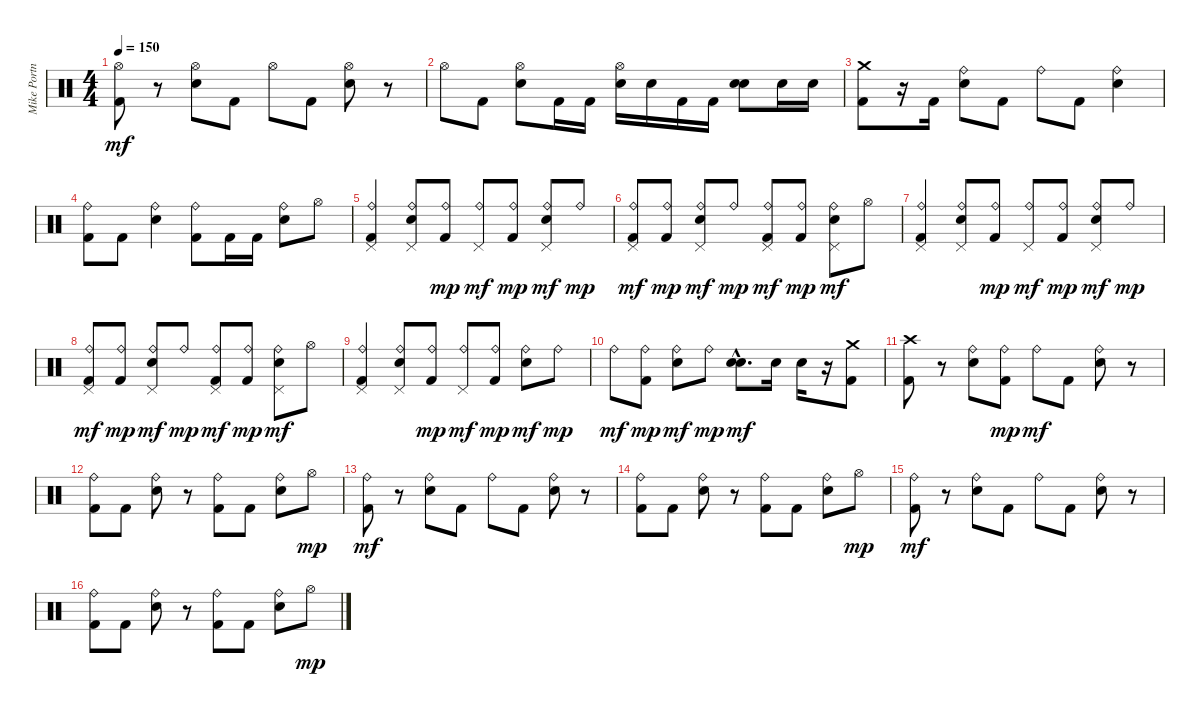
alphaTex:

\track ("Mike Portnoy: Drums" "Mike Portn") {instrument percussion}
\staff {score}
\articulation defaults
\ts (4 4)
\tempo 150
\clef neutral
\ks c
("Kick (hit) 2" "Hi-Hat (open)").8{dy mf} r.8 ("Electric Snare (hit)" "Hi-Hat (open)").8 "Kick (hit) 2".8 "Hi-Hat (open)".8 "Kick (hit) 2".8 ("Electric Snare (hit)" "Hi-Hat (open)").8 r.8 |
"Hi-Hat (open)".8 "Kick (hit) 2".8 ("Electric Snare (hit)" "Hi-Hat (open)").8 "Kick (hit) 2".16 "Kick (hit) 2".16 ("Electric Snare (hit)" "Hi-Hat (open)").16 "Electric Snare (hit)".16 "Kick (hit) 2".16 "Kick (hit) 2".16 ("Electric Snare (hit)" "Electric Snare (hit)").8 "Electric Snare (hit)".16 "Electric Snare (hit)".16 |
("Kick (hit) 2" "Crash medium (hit)").8 r.16 "Kick (hit) 2".16 ("Electric Snare (hit)" "Ride (bell)").8 "Kick (hit) 2".8 "Ride (bell)".8 "Kick (hit) 2".8 ("Electric Snare (hit)" "Ride (bell)").4 |
("Kick (hit) 2" "Ride (bell)").8 "Kick (hit) 2".8 ("Electric Snare (hit)" "Ride (bell)").4 ("Kick (hit) 2" "Ride (bell)").8 "Kick (hit) 2".16 "Kick (hit) 2".16 ("Electric Snare (hit)" "Ride (bell)").8 "Hi-Hat (open)".8 |
("Kick (hit) 2" "Pedal Hi-Hat (hit)" "Ride (bell)").4 ("Electric Snare (hit)" "Pedal Hi-Hat (hit)" "Ride (bell)").8 ("Kick (hit) 2" "Ride (bell)").8{dy mp} ("Pedal Hi-Hat (hit)" "Ride (bell)").8{dy mf} ("Kick (hit) 2" "Ride (bell)").8{dy mp} ("Electric Snare (hit)" "Pedal Hi-Hat (hit)" "Ride (bell)").8{dy mf} "Ride (bell)".8{dy mp} |
("Kick (hit) 2" "Pedal Hi-Hat (hit)" "Ride (bell)").8{dy mf} ("Kick (hit) 2" "Ride (bell)").8{dy mp} ("Electric Snare (hit)" "Pedal Hi-Hat (hit)" "Ride (bell)").8{dy mf} "Ride (bell)".8{dy mp} ("Kick (hit) 2" "Pedal Hi-Hat (hit)" "Ride (bell)").8{dy mf} ("Kick (hit) 2" "Ride (bell)").8{dy mp} ("Electric Snare (hit)" "Pedal Hi-Hat (hit)" "Ride (bell)").8{dy mf} "Hi-Hat (open)".8 |
("Kick (hit) 2" "Pedal Hi-Hat (hit)" "Ride (bell)").4 ("Electric Snare (hit)" "Pedal Hi-Hat (hit)" "Ride (bell)").8 ("Kick (hit) 2" "Ride (bell)").8{dy mp} ("Pedal Hi-Hat (hit)" "Ride (bell)").8{dy mf} ("Kick (hit) 2" "Ride (bell)").8{dy mp} ("Electric Snare (hit)" "Pedal Hi-Hat (hit)" "Ride (bell)").8{dy mf} "Ride (bell)".8{dy mp} |
("Kick (hit) 2" "Pedal Hi-Hat (hit)" "Ride (bell)").8{dy mf} ("Kick (hit) 2" "Ride (bell)").8{dy mp} ("Electric Snare (hit)" "Pedal Hi-Hat (hit)" "Ride (bell)").8{dy mf} "Ride (bell)".8{dy mp} ("Kick (hit) 2" "Pedal Hi-Hat (hit)" "Ride (bell)").8{dy mf} ("Kick (hit) 2" "Ride (bell)").8{dy mp} ("Electric Snare (hit)" "Pedal Hi-Hat (hit)" "Ride (bell)").8{dy mf} "Hi-Hat (open)".8 |
("Kick (hit) 2" "Pedal Hi-Hat (hit)" "Ride (bell)").4 ("Electric Snare (hit)" "Pedal Hi-Hat (hit)" "Ride (bell)").8 ("Kick (hit) 2" "Ride (bell)").8{dy mp} ("Pedal Hi-Hat (hit)" "Ride (bell)").8{dy mf} ("Kick (hit) 2" "Ride (bell)").8{dy mp} ("Electric Snare (hit)" "Ride (bell)").8{dy mf} "Ride (bell)".8{dy mp} |
"Ride (bell)".8{dy mf} ("Kick (hit) 2" "Ride (bell)").8{dy mp} ("Electric Snare (hit)" "Ride (bell)").8{dy mf} "Ride (bell)".8{dy mp} ("Electric Snare (hit)"{hac} "Electric Snare (hit)"{hac}).8{d dy mf} "Electric Snare (hit)".16 "Electric Snare (hit)".16 r.16 ("Kick (hit) 2" "Crash medium (hit)").8 |
("Kick (hit) 2" "Crash high (hit)").8 r.8 ("Electric Snare (hit)" "Ride (bell)").8 ("Kick (hit) 2" "Ride (bell)").8{dy mp} "Ride (bell)".8{dy mf} "Kick (hit) 2".8 ("Electric Snare (hit)" "Ride (bell)").8 r.8 |
("Kick (hit) 2" "Ride (bell)").8 "Kick (hit) 2".8 ("Electric Snare (hit)" "Ride (bell)").8 r.8 ("Kick (hit) 2" "Ride (bell)").8 "Kick (hit) 2".8 ("Electric Snare (hit)" "Ride (bell)").8 "Hi-Hat (open)".8{dy mp} |
("Kick (hit) 2" "Ride (bell)").8{dy mf} r.8 ("Electric Snare (hit)" "Ride (bell)").8 "Kick (hit) 2".8 "Ride (bell)".8 "Kick (hit) 2".8 ("Electric Snare (hit)" "Ride (bell)").8 r.8 |
("Kick (hit) 2" "Ride (bell)").8 "Kick (hit) 2".8 ("Electric Snare (hit)" "Ride (bell)").8 r.8 ("Kick (hit) 2" "Ride (bell)").8 "Kick (hit) 2".8 ("Electric Snare (hit)" "Ride (bell)").8 "Hi-Hat (open)".8{dy mp} |
("Kick (hit) 2" "Ride (bell)").8{dy mf} r.8 ("Electric Snare (hit)" "Ride (bell)").8 "Kick (hit) 2".8 "Ride (bell)".8 "Kick (hit) 2".8 ("Electric Snare (hit)" "Ride (bell)").8 r.8 |
("Kick (hit) 2" "Ride (bell)").8 "Kick (hit) 2".8 ("Electric Snare (hit)" "Ride (bell)").8 r.8 ("Kick (hit) 2" "Ride (bell)").8 "Kick (hit) 2".8 ("Electric Snare (hit)" "Ride (bell)").8 "Hi-Hat (open)".8{dy mp}
